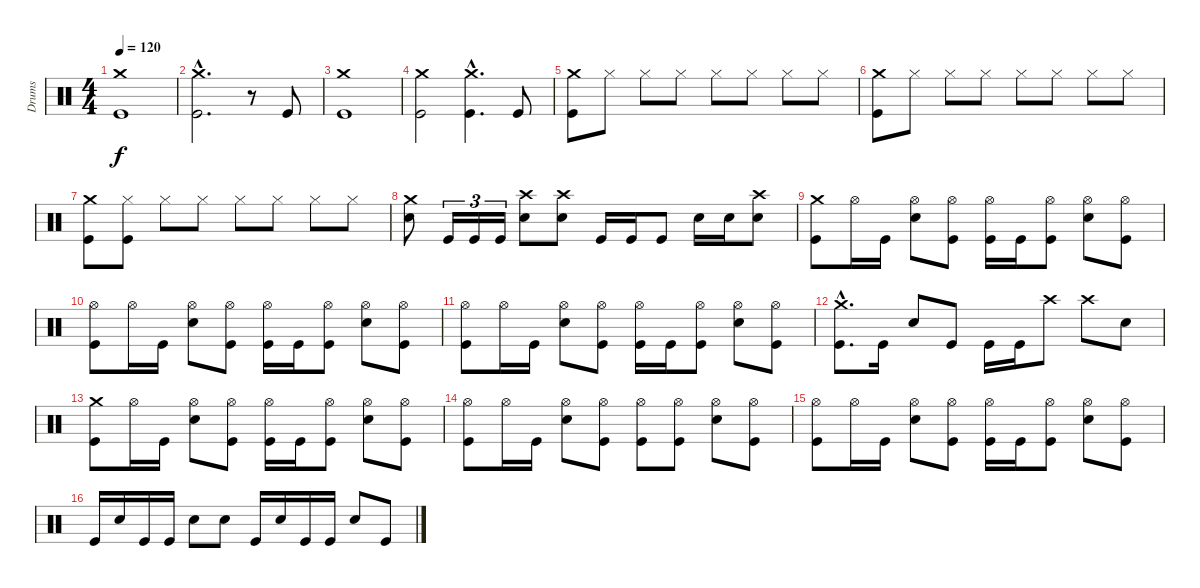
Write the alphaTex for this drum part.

\track ("Drums" "Drums") {instrument percussion}
\staff {score}
\articulation defaults
\ts (4 4)
\tempo 120
\clef neutral
\ks c
("Kick (hit)" "Crash medium (hit)").1{dy f} |
("Kick (hit)"{hac} "Crash medium (hit)"{hac}).2{d} r.8 "Kick (hit)".8 |
("Kick (hit)" "Crash medium (hit)").1 |
("Kick (hit)" "Crash medium (hit)").2 ("Kick (hit)"{hac} "Crash medium (hit)"{hac}).4{d} "Kick (hit)".8 |
("Kick (hit)" "Crash medium (hit)").8 "Hi-Hat (closed)".8 "Hi-Hat (closed)".8 "Hi-Hat (closed)".8 "Hi-Hat (closed)".8 "Hi-Hat (closed)".8 "Hi-Hat (closed)".8 "Hi-Hat (closed)".8 |
("Kick (hit)" "Crash medium (hit)").8 "Hi-Hat (closed)".8 "Hi-Hat (closed)".8 "Hi-Hat (closed)".8 "Hi-Hat (closed)".8 "Hi-Hat (closed)".8 "Hi-Hat (closed)".8 "Hi-Hat (closed)".8 |
("Kick (hit)" "Crash medium (hit)").8 ("Kick (hit)" "Hi-Hat (closed)").8 "Hi-Hat (closed)".8 "Hi-Hat (closed)".8 "Hi-Hat (closed)".8 "Hi-Hat (closed)".8 "Hi-Hat (closed)".8 "Hi-Hat (closed)".8 |
("Electric Snare (hit)" "Crash medium (hit)").8 "Kick (hit)".16{tu (3 2)} "Kick (hit)".16{tu (3 2)} "Kick (hit)".16{tu (3 2)} ("Electric Snare (hit)" "Crash high (hit)").8 ("Electric Snare (hit)" "Crash high (hit)").8 "Kick (hit)".16 "Kick (hit)".16 "Kick (hit)".8 "Electric Snare (hit)".16 "Electric Snare (hit)".16 ("Electric Snare (hit)" "Crash high (hit)").8 |
("Kick (hit)" "Crash medium (hit)").8 "Hi-Hat (open)".16 "Kick (hit)".16 ("Electric Snare (hit)" "Hi-Hat (open)").8 ("Kick (hit)" "Hi-Hat (open)").8 ("Kick (hit)" "Hi-Hat (open)").16 "Kick (hit)".16 ("Kick (hit)" "Hi-Hat (open)").8 ("Electric Snare (hit)" "Hi-Hat (open)").8 ("Kick (hit)" "Hi-Hat (open)").8 |
("Kick (hit)" "Hi-Hat (open)").8 "Hi-Hat (open)".16 "Kick (hit)".16 ("Electric Snare (hit)" "Hi-Hat (open)").8 ("Kick (hit)" "Hi-Hat (open)").8 ("Kick (hit)" "Hi-Hat (open)").16 "Kick (hit)".16 ("Kick (hit)" "Hi-Hat (open)").8 ("Electric Snare (hit)" "Hi-Hat (open)").8 ("Kick (hit)" "Hi-Hat (open)").8 |
("Kick (hit)" "Hi-Hat (open)").8 "Hi-Hat (open)".16 "Kick (hit)".16 ("Electric Snare (hit)" "Hi-Hat (open)").8 ("Kick (hit)" "Hi-Hat (open)").8 ("Kick (hit)" "Hi-Hat (open)").16 "Kick (hit)".16 ("Kick (hit)" "Hi-Hat (open)").8 ("Electric Snare (hit)" "Hi-Hat (open)").8 ("Kick (hit)" "Hi-Hat (open)").8 |
("Kick (hit)"{hac} "Crash medium (hit)"{hac}).8{d} "Kick (hit)".16 "Electric Snare (hit)".8 "Kick (hit)".8 "Kick (hit)".16 "Kick (hit)".16 "Crash high (hit)".8 "Crash high (hit)".8 "Electric Snare (hit)".8 |
("Kick (hit)" "Crash medium (hit)").8 "Hi-Hat (open)".16 "Kick (hit)".16 ("Electric Snare (hit)" "Hi-Hat (open)").8 ("Kick (hit)" "Hi-Hat (open)").8 ("Kick (hit)" "Hi-Hat (open)").16 "Kick (hit)".16 ("Kick (hit)" "Hi-Hat (open)").8 ("Electric Snare (hit)" "Hi-Hat (open)").8 ("Kick (hit)" "Hi-Hat (open)").8 |
("Kick (hit)" "Hi-Hat (open)").8 "Hi-Hat (open)".16 "Kick (hit)".16 ("Electric Snare (hit)" "Hi-Hat (open)").8 ("Kick (hit)" "Hi-Hat (open)").8 ("Kick (hit)" "Hi-Hat (open)").8 ("Kick (hit)" "Hi-Hat (open)").8 ("Electric Snare (hit)" "Hi-Hat (open)").8 ("Kick (hit)" "Hi-Hat (open)").8 |
("Kick (hit)" "Hi-Hat (open)").8 "Hi-Hat (open)".16 "Kick (hit)".16 ("Electric Snare (hit)" "Hi-Hat (open)").8 ("Kick (hit)" "Hi-Hat (open)").8 ("Kick (hit)" "Hi-Hat (open)").16 "Kick (hit)".16 ("Kick (hit)" "Hi-Hat (open)").8 ("Electric Snare (hit)" "Hi-Hat (open)").8 ("Kick (hit)" "Hi-Hat (open)").8 |
"Kick (hit)".16 "Electric Snare (hit)".16 "Kick (hit)".16 "Kick (hit)".16 "Electric Snare (hit)".8 "Electric Snare (hit)".8 "Kick (hit)".16 "Electric Snare (hit)".16 "Kick (hit)".16 "Kick (hit)".16 "Electric Snare (hit)".8 "Kick (hit)".8
